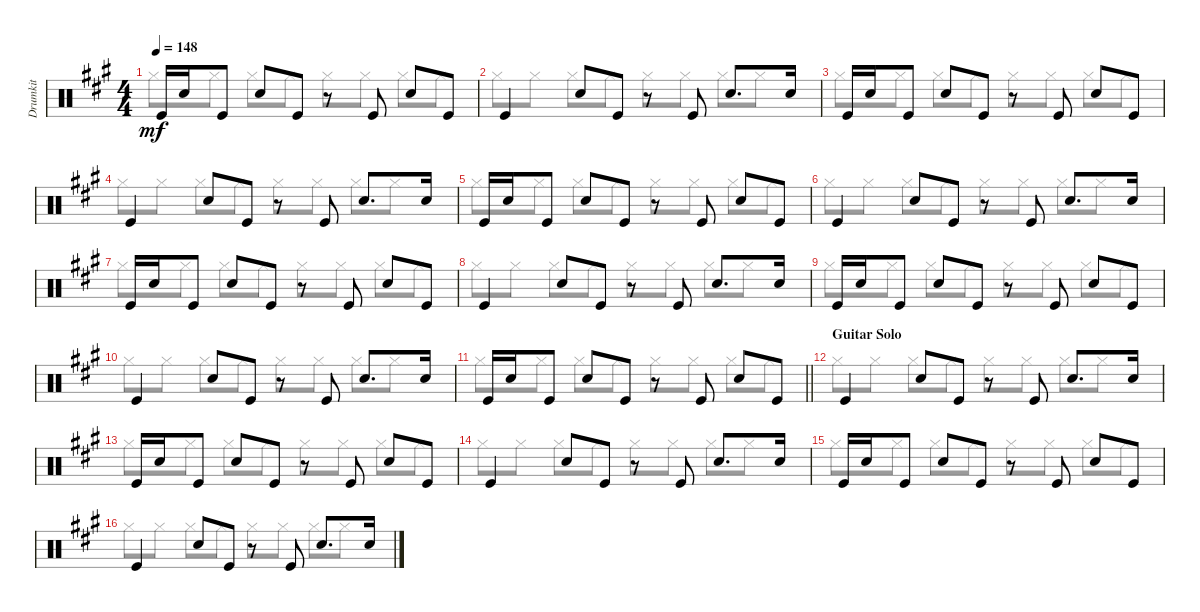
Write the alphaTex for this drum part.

\track ("Drumkit" "Drumkit") {instrument percussion}
\staff {score}
\articulation defaults
\voice
\ts (4 4)
\tempo 148
\clef neutral
\ks a "Kick (hit)".16{dy mf} "Snare (hit) 2".16 "Kick (hit)".8 "Snare (hit) 2".8 "Kick (hit)".8
r.8 "Kick (hit)".8 "Snare (hit) 2".8 "Kick (hit)".8 |
"Kick (hit)".4 "Snare (hit) 2".8 "Kick (hit)".8 r.8 "Kick (hit)".8 "Snare (hit) 2".8{d} "Snare (hit) 2".16 |
"Kick (hit)".16 "Snare (hit) 2".16 "Kick (hit)".8 "Snare (hit) 2".8 "Kick (hit)".8 r.8 "Kick (hit)".8 "Snare (hit) 2".8 "Kick (hit)".8 |
"Kick (hit)".4 "Snare (hit) 2".8 "Kick (hit)".8 r.8 "Kick (hit)".8 "Snare (hit) 2".8{d} "Snare (hit) 2".16 |
"Kick (hit)".16 "Snare (hit) 2".16 "Kick (hit)".8 "Snare (hit) 2".8 "Kick (hit)".8 r.8 "Kick (hit)".8 "Snare (hit) 2".8 "Kick (hit)".8 |
"Kick (hit)".4 "Snare (hit) 2".8 "Kick (hit)".8 r.8 "Kick (hit)".8 "Snare (hit) 2".8{d} "Snare (hit) 2".16 |
"Kick (hit)".16 "Snare (hit) 2".16 "Kick (hit)".8 "Snare (hit) 2".8 "Kick (hit)".8 r.8 "Kick (hit)".8 "Snare (hit) 2".8 "Kick (hit)".8 |
"Kick (hit)".4 "Snare (hit) 2".8 "Kick (hit)".8 r.8 "Kick (hit)".8 "Snare (hit) 2".8{d} "Snare (hit) 2".16 |
"Kick (hit)".16 "Snare (hit) 2".16 "Kick (hit)".8 "Snare (hit) 2".8 "Kick (hit)".8 r.8 "Kick (hit)".8 "Snare (hit) 2".8 "Kick (hit)".8 |
"Kick (hit)".4 "Snare (hit) 2".8 "Kick (hit)".8 r.8 "Kick (hit)".8 "Snare (hit) 2".8{d} "Snare (hit) 2".16 |
\barLineRight lightlight "Kick (hit)".16 "Snare (hit) 2".16 "Kick (hit)".8 "Snare (hit) 2".8 "Kick (hit)".8
r.8 "Kick (hit)".8 "Snare (hit) 2".8 "Kick (hit)".8 |
\section ("" "Guitar Solo")
"Kick (hit)".4 "Snare (hit) 2".8 "Kick (hit)".8 r.8 "Kick (hit)".8 "Snare (hit) 2".8{d} "Snare (hit) 2".16 |
"Kick (hit)".16 "Snare (hit) 2".16 "Kick (hit)".8 "Snare (hit) 2".8 "Kick (hit)".8 r.8 "Kick (hit)".8 "Snare (hit) 2".8 "Kick (hit)".8 |
"Kick (hit)".4 "Snare (hit) 2".8 "Kick (hit)".8 r.8 "Kick (hit)".8 "Snare (hit) 2".8{d} "Snare (hit) 2".16 |
"Kick (hit)".16 "Snare (hit) 2".16 "Kick (hit)".8 "Snare (hit) 2".8 "Kick (hit)".8 r.8 "Kick (hit)".8 "Snare (hit) 2".8 "Kick (hit)".8 |
"Kick (hit)".4 "Snare (hit) 2".8 "Kick (hit)".8 r.8 "Kick (hit)".8 "Snare (hit) 2".8{d} "Snare (hit) 2".16
\voice
\clef neutral
\ottava regular
\simile none
\ks a "Hi-Hat (closed)".8{dy mf} "Hi-Hat (closed)".8 "Hi-Hat (closed)".8 "Hi-Hat (closed)".8 "Hi-Hat (closed)".8 "Hi-Hat (closed)".8 "Hi-Hat (closed)".8 "Hi-Hat (closed)".8
|
"Hi-Hat (closed)".8 "Hi-Hat (closed)".8 "Hi-Hat (closed)".8 "Hi-Hat (closed)".8 "Hi-Hat (closed)".8 "Hi-Hat (closed)".8 "Hi-Hat (closed)".8 "Hi-Hat (closed)".8 |
"Hi-Hat (closed)".8 "Hi-Hat (closed)".8 "Hi-Hat (closed)".8 "Hi-Hat (closed)".8 "Hi-Hat (closed)".8 "Hi-Hat (closed)".8 "Hi-Hat (closed)".8 "Hi-Hat (closed)".8 |
"Hi-Hat (closed)".8 "Hi-Hat (closed)".8 "Hi-Hat (closed)".8 "Hi-Hat (closed)".8 "Hi-Hat (closed)".8 "Hi-Hat (closed)".8 "Hi-Hat (closed)".8 "Hi-Hat (closed)".8 |
"Hi-Hat (closed)".8 "Hi-Hat (closed)".8 "Hi-Hat (closed)".8 "Hi-Hat (closed)".8 "Hi-Hat (closed)".8 "Hi-Hat (closed)".8 "Hi-Hat (closed)".8 "Hi-Hat (closed)".8 |
"Hi-Hat (closed)".8 "Hi-Hat (closed)".8 "Hi-Hat (closed)".8 "Hi-Hat (closed)".8 "Hi-Hat (closed)".8 "Hi-Hat (closed)".8 "Hi-Hat (closed)".8 "Hi-Hat (closed)".8 |
"Hi-Hat (closed)".8 "Hi-Hat (closed)".8 "Hi-Hat (closed)".8 "Hi-Hat (closed)".8 "Hi-Hat (closed)".8 "Hi-Hat (closed)".8 "Hi-Hat (closed)".8 "Hi-Hat (closed)".8 |
"Hi-Hat (closed)".8 "Hi-Hat (closed)".8 "Hi-Hat (closed)".8 "Hi-Hat (closed)".8 "Hi-Hat (closed)".8 "Hi-Hat (closed)".8 "Hi-Hat (closed)".8 "Hi-Hat (closed)".8 |
"Hi-Hat (closed)".8 "Hi-Hat (closed)".8 "Hi-Hat (closed)".8 "Hi-Hat (closed)".8 "Hi-Hat (closed)".8 "Hi-Hat (closed)".8 "Hi-Hat (closed)".8 "Hi-Hat (closed)".8 |
"Hi-Hat (closed)".8 "Hi-Hat (closed)".8 "Hi-Hat (closed)".8 "Hi-Hat (closed)".8 "Hi-Hat (closed)".8 "Hi-Hat (closed)".8 "Hi-Hat (closed)".8 "Hi-Hat (closed)".8 |
\barLineRight lightlight "Hi-Hat (closed)".8 "Hi-Hat (closed)".8 "Hi-Hat (closed)".8 "Hi-Hat (closed)".8 "Hi-Hat (closed)".8 "Hi-Hat (closed)".8 "Hi-Hat (closed)".8 "Hi-Hat (closed)".8
|
"Hi-Hat (closed)".8 "Hi-Hat (closed)".8 "Hi-Hat (closed)".8 "Hi-Hat (closed)".8 "Hi-Hat (closed)".8 "Hi-Hat (closed)".8 "Hi-Hat (closed)".8 "Hi-Hat (closed)".8 |
"Hi-Hat (closed)".8 "Hi-Hat (closed)".8 "Hi-Hat (closed)".8 "Hi-Hat (closed)".8 "Hi-Hat (closed)".8 "Hi-Hat (closed)".8 "Hi-Hat (closed)".8 "Hi-Hat (closed)".8 |
"Hi-Hat (closed)".8 "Hi-Hat (closed)".8 "Hi-Hat (closed)".8 "Hi-Hat (closed)".8 "Hi-Hat (closed)".8 "Hi-Hat (closed)".8 "Hi-Hat (closed)".8 "Hi-Hat (closed)".8 |
"Hi-Hat (closed)".8 "Hi-Hat (closed)".8 "Hi-Hat (closed)".8 "Hi-Hat (closed)".8 "Hi-Hat (closed)".8 "Hi-Hat (closed)".8 "Hi-Hat (closed)".8 "Hi-Hat (closed)".8 |
"Hi-Hat (closed)".8 "Hi-Hat (closed)".8 "Hi-Hat (closed)".8 "Hi-Hat (closed)".8 "Hi-Hat (closed)".8 "Hi-Hat (closed)".8 "Hi-Hat (closed)".8 "Hi-Hat (closed)".8
